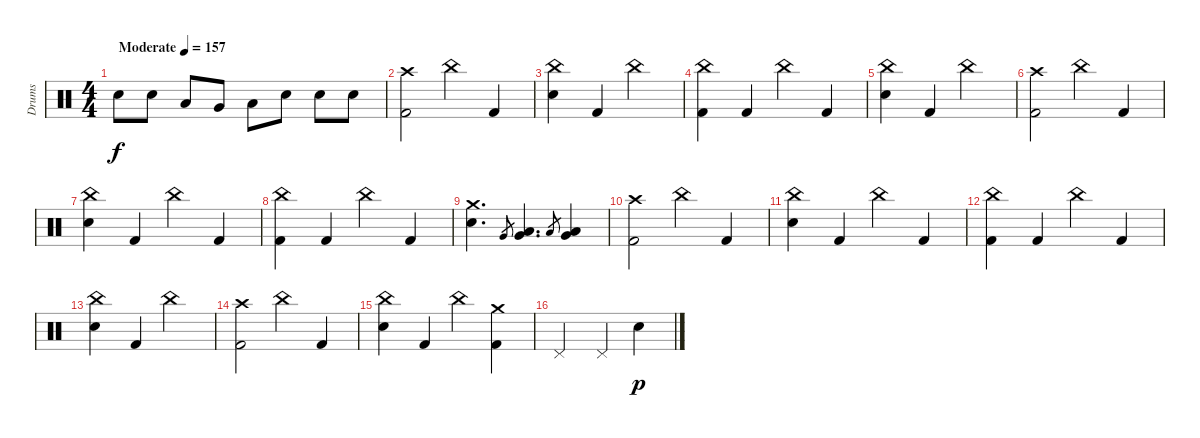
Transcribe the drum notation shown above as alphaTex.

\track ("Drums" "Drums") {instrument percussion}
\staff {score}
\articulation defaults
\ts (4 4)
\tempo (157 "Moderate")
\clef neutral
\ks c "Electric Snare (hit)".8{dy f} "Electric Snare (hit)".8 "Low Tom (hit)".8 "Very Low Tom (hit)".8 "Low Floor Tom (hit)".8 "Electric Snare (hit)".8 "Electric Snare (hit)".8 "Electric Snare (hit)".8
|
("Crash high (hit)" "Kick (hit) 2").2 "China (hit)".4 "Kick (hit) 2".4 |
("China (hit)" "Electric Snare (hit)").4 "Kick (hit) 2".4 "China (hit)".2 |
("China (hit)" "Kick (hit) 2").4 "Kick (hit) 2".4 "China (hit)".4 "Kick (hit) 2".4 |
("China (hit)" "Electric Snare (hit)").4 "Kick (hit) 2".4 "China (hit)".2 |
("Crash high (hit)" "Kick (hit) 2").2 "China (hit)".4 "Kick (hit) 2".4 |
("China (hit)" "Electric Snare (hit)").4 "Kick (hit) 2".4 "China (hit)".4 "Kick (hit) 2".4 |
("China (hit)" "Kick (hit) 2").4 "Kick (hit) 2".4 "China (hit)".4 "Kick (hit) 2".4 |
("Crash medium (hit)" "Electric Snare (hit)").4{d} "Very Low Tom (hit)".8{gr} ("Low Tom (hit)" "Very Low Tom (hit)").4{d} "Low Floor Tom (hit)".8{gr} ("Very Low Tom (hit)" "Low Floor Tom (hit)").4 |
("Crash high (hit)" "Kick (hit) 2").2 "China (hit)".4 "Kick (hit) 2".4 |
("China (hit)" "Electric Snare (hit)").4 "Kick (hit) 2".4 "China (hit)".4 "Kick (hit) 2".4 |
("China (hit)" "Kick (hit) 2").4 "Kick (hit) 2".4 "China (hit)".4 "Kick (hit) 2".4 |
("China (hit)" "Electric Snare (hit)").4 "Kick (hit) 2".4 "China (hit)".2 |
("Crash high (hit)" "Kick (hit) 2").2 "China (hit)".4 "Kick (hit) 2".4 |
("China (hit)" "Electric Snare (hit)").4 "Kick (hit) 2".4 "China (hit)".4 ("Crash medium (hit)" "Kick (hit) 2").4 |
"Pedal Hi-Hat (hit)".2 "Pedal Hi-Hat (hit)".4 "Electric Snare (hit)".4{dy p}
